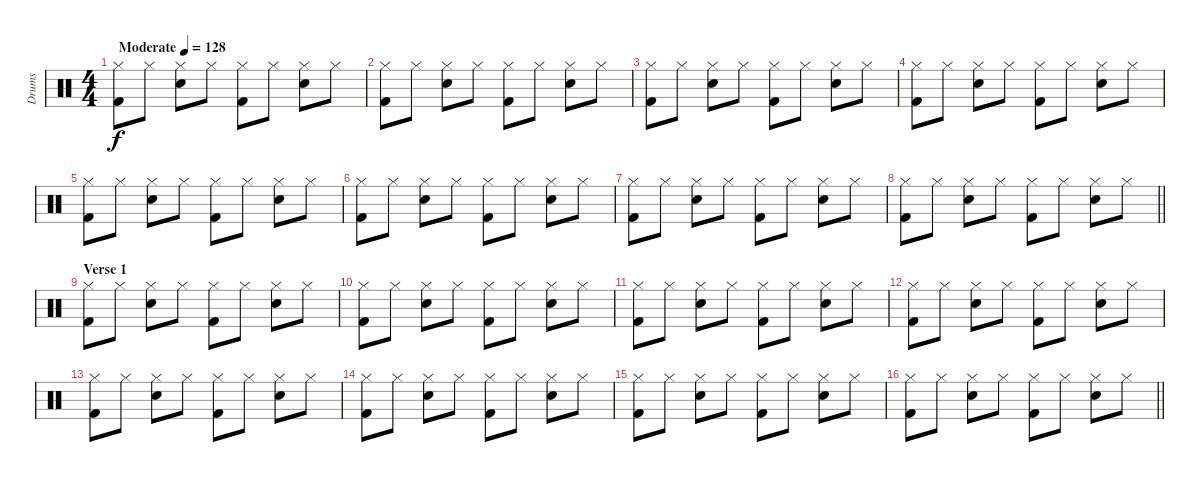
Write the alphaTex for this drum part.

\track ("Drums" "Drums") {instrument percussion}
\staff {score}
\articulation defaults
\ts (4 4)
\tempo (128 "Moderate")
\clef neutral
\ks c
("Hi-Hat (closed)" "Kick (hit) 2").8{dy f} "Hi-Hat (closed)".8 ("Hi-Hat (closed)" "Electric Snare (hit)").8 "Hi-Hat (closed)".8 ("Hi-Hat (closed)" "Kick (hit) 2").8 "Hi-Hat (closed)".8 ("Hi-Hat (closed)" "Electric Snare (hit)").8 "Hi-Hat (closed)".8 |
("Hi-Hat (closed)" "Kick (hit) 2").8 "Hi-Hat (closed)".8 ("Hi-Hat (closed)" "Electric Snare (hit)").8 "Hi-Hat (closed)".8 ("Hi-Hat (closed)" "Kick (hit) 2").8 "Hi-Hat (closed)".8 ("Hi-Hat (closed)" "Electric Snare (hit)").8 "Hi-Hat (closed)".8 |
("Hi-Hat (closed)" "Kick (hit) 2").8 "Hi-Hat (closed)".8 ("Hi-Hat (closed)" "Electric Snare (hit)").8 "Hi-Hat (closed)".8 ("Hi-Hat (closed)" "Kick (hit) 2").8 "Hi-Hat (closed)".8 ("Hi-Hat (closed)" "Electric Snare (hit)").8 "Hi-Hat (closed)".8 |
("Hi-Hat (closed)" "Kick (hit) 2").8 "Hi-Hat (closed)".8 ("Hi-Hat (closed)" "Electric Snare (hit)").8 "Hi-Hat (closed)".8 ("Hi-Hat (closed)" "Kick (hit) 2").8 "Hi-Hat (closed)".8 ("Hi-Hat (closed)" "Electric Snare (hit)").8 "Hi-Hat (closed)".8 |
("Hi-Hat (closed)" "Kick (hit) 2").8 "Hi-Hat (closed)".8 ("Hi-Hat (closed)" "Electric Snare (hit)").8 "Hi-Hat (closed)".8 ("Hi-Hat (closed)" "Kick (hit) 2").8 "Hi-Hat (closed)".8 ("Hi-Hat (closed)" "Electric Snare (hit)").8 "Hi-Hat (closed)".8 |
("Hi-Hat (closed)" "Kick (hit) 2").8 "Hi-Hat (closed)".8 ("Hi-Hat (closed)" "Electric Snare (hit)").8 "Hi-Hat (closed)".8 ("Hi-Hat (closed)" "Kick (hit) 2").8 "Hi-Hat (closed)".8 ("Hi-Hat (closed)" "Electric Snare (hit)").8 "Hi-Hat (closed)".8 |
("Hi-Hat (closed)" "Kick (hit) 2").8 "Hi-Hat (closed)".8 ("Hi-Hat (closed)" "Electric Snare (hit)").8 "Hi-Hat (closed)".8 ("Hi-Hat (closed)" "Kick (hit) 2").8 "Hi-Hat (closed)".8 ("Hi-Hat (closed)" "Electric Snare (hit)").8 "Hi-Hat (closed)".8 |
\barLineRight lightlight
("Hi-Hat (closed)" "Kick (hit) 2").8 "Hi-Hat (closed)".8 ("Hi-Hat (closed)" "Electric Snare (hit)").8 "Hi-Hat (closed)".8 ("Hi-Hat (closed)" "Kick (hit) 2").8 "Hi-Hat (closed)".8 ("Hi-Hat (closed)" "Electric Snare (hit)").8 "Hi-Hat (closed)".8 |
\section ("" "Verse 1")
("Hi-Hat (closed)" "Kick (hit) 2").8 "Hi-Hat (closed)".8 ("Hi-Hat (closed)" "Electric Snare (hit)").8 "Hi-Hat (closed)".8 ("Hi-Hat (closed)" "Kick (hit) 2").8 "Hi-Hat (closed)".8 ("Hi-Hat (closed)" "Electric Snare (hit)").8 "Hi-Hat (closed)".8 |
("Hi-Hat (closed)" "Kick (hit) 2").8 "Hi-Hat (closed)".8 ("Hi-Hat (closed)" "Electric Snare (hit)").8 "Hi-Hat (closed)".8 ("Hi-Hat (closed)" "Kick (hit) 2").8 "Hi-Hat (closed)".8 ("Hi-Hat (closed)" "Electric Snare (hit)").8 "Hi-Hat (closed)".8 |
("Hi-Hat (closed)" "Kick (hit) 2").8 "Hi-Hat (closed)".8 ("Hi-Hat (closed)" "Electric Snare (hit)").8 "Hi-Hat (closed)".8 ("Hi-Hat (closed)" "Kick (hit) 2").8 "Hi-Hat (closed)".8 ("Hi-Hat (closed)" "Electric Snare (hit)").8 "Hi-Hat (closed)".8 |
("Hi-Hat (closed)" "Kick (hit) 2").8 "Hi-Hat (closed)".8 ("Hi-Hat (closed)" "Electric Snare (hit)").8 "Hi-Hat (closed)".8 ("Hi-Hat (closed)" "Kick (hit) 2").8 "Hi-Hat (closed)".8 ("Hi-Hat (closed)" "Electric Snare (hit)").8 "Hi-Hat (closed)".8 |
("Hi-Hat (closed)" "Kick (hit) 2").8 "Hi-Hat (closed)".8 ("Hi-Hat (closed)" "Electric Snare (hit)").8 "Hi-Hat (closed)".8 ("Hi-Hat (closed)" "Kick (hit) 2").8 "Hi-Hat (closed)".8 ("Hi-Hat (closed)" "Electric Snare (hit)").8 "Hi-Hat (closed)".8 |
("Hi-Hat (closed)" "Kick (hit) 2").8 "Hi-Hat (closed)".8 ("Hi-Hat (closed)" "Electric Snare (hit)").8 "Hi-Hat (closed)".8 ("Hi-Hat (closed)" "Kick (hit) 2").8 "Hi-Hat (closed)".8 ("Hi-Hat (closed)" "Electric Snare (hit)").8 "Hi-Hat (closed)".8 |
("Hi-Hat (closed)" "Kick (hit) 2").8 "Hi-Hat (closed)".8 ("Hi-Hat (closed)" "Electric Snare (hit)").8 "Hi-Hat (closed)".8 ("Hi-Hat (closed)" "Kick (hit) 2").8 "Hi-Hat (closed)".8 ("Hi-Hat (closed)" "Electric Snare (hit)").8 "Hi-Hat (closed)".8 |
\barLineRight lightlight
("Hi-Hat (closed)" "Kick (hit) 2").8 "Hi-Hat (closed)".8 ("Hi-Hat (closed)" "Electric Snare (hit)").8 "Hi-Hat (closed)".8 ("Hi-Hat (closed)" "Kick (hit) 2").8 "Hi-Hat (closed)".8 ("Hi-Hat (closed)" "Electric Snare (hit)").8 "Hi-Hat (closed)".8
